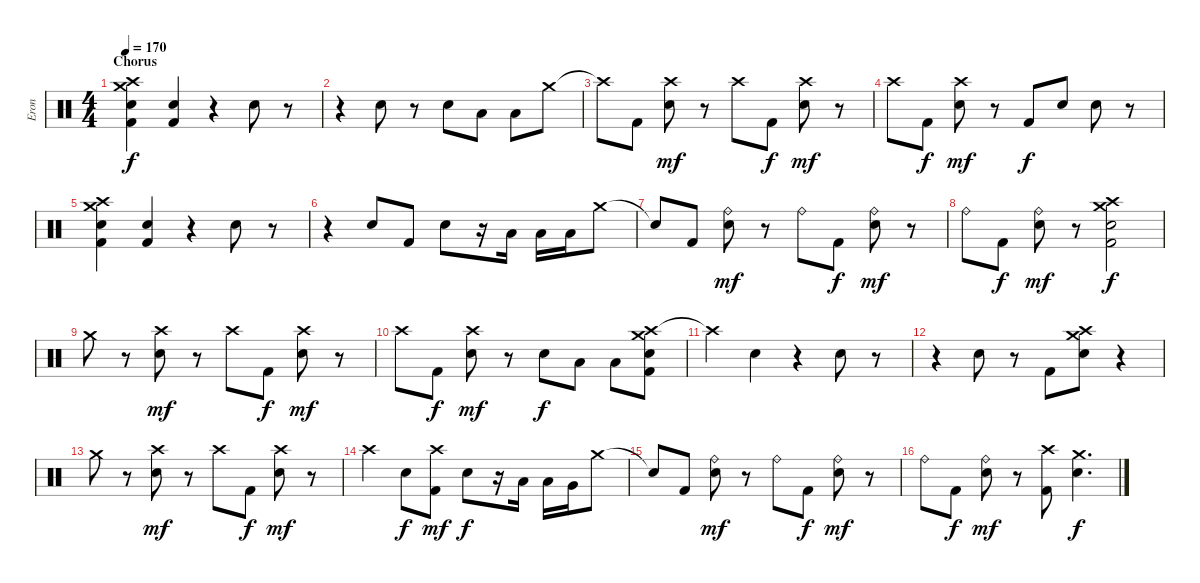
\track ("Eron" "Eron") {instrument percussion}
\staff {score}
\articulation defaults
\ts (4 4)
\section ("" "Chorus")
\tempo 170
\clef neutral
\ks c
("Crash high (hit)" "Crash medium (hit)" "Snare (hit) 2" "Kick (hit) 2").4{dy f} ("Snare (hit) 2" "Kick (hit) 2").4 r.4 "Snare (hit) 2".8 r.8 |
r.4 "Snare (hit) 2".8 r.8 "Snare (hit) 2".8 "Low Tom (hit)".8 "Low Floor Tom (hit)".8 "Crash medium (hit)".8 |
"Crash high (hit)"{t}.8 "Kick (hit) 2".8 ("Crash high (hit)" "Snare (hit) 2").8{dy mf} r.8 "Crash high (hit)".8 "Kick (hit) 2".8{dy f} ("Crash high (hit)" "Snare (hit) 2").8{dy mf} r.8 |
"Crash high (hit)".8 "Kick (hit) 2".8{dy f} ("Crash high (hit)" "Snare (hit) 2").8{dy mf} r.8 "Kick (hit) 2".8{dy f} "Snare (hit) 2".8 "Snare (hit) 2".8 r.8 |
("Crash medium (hit)" "Crash high (hit)" "Snare (hit) 2" "Kick (hit) 2").4 ("Snare (hit) 2" "Kick (hit) 2").4 r.4 "Snare (hit) 2".8 r.8 |
r.4 "Snare (hit) 2".8 "Kick (hit) 2".8 "Snare (hit) 2".8 r.16 "Low Tom (hit)".16 "Low Tom (hit)".16 "Low Floor Tom (hit)".16 "Crash medium (hit)".8 |
"Snare (hit)"{t}.8 "Kick (hit) 2".8 ("Ride (bell)" "Snare (hit) 2").8{dy mf} r.8 "Ride (bell)".8 "Kick (hit) 2".8{dy f} ("Ride (bell)" "Snare (hit) 2").8{dy mf} r.8 |
"Ride (bell)".8 "Kick (hit) 2".8{dy f} ("Ride (bell)" "Snare (hit) 2").8{dy mf} r.8 ("Crash high (hit)" "Crash medium (hit)" "Snare (hit) 2" "Kick (hit) 2").2{dy f} |
"Crash medium (hit)".8 r.8 ("Crash high (hit)" "Snare (hit) 2").8{dy mf} r.8 "Crash high (hit)".8 "Kick (hit) 2".8{dy f} ("Crash high (hit)" "Snare (hit) 2").8{dy mf} r.8 |
"Crash high (hit)".8 "Kick (hit) 2".8{dy f} ("Crash high (hit)" "Snare (hit) 2").8{dy mf} r.8 "Snare (hit) 2".8{dy f} "Low Tom (hit)".8 "Low Floor Tom (hit)".8 ("Crash high (hit)" "Crash medium (hit)" "Snare (hit) 2" "Kick (hit) 2").8 |
"Crash high (hit)"{t}.4 "Snare (hit) 2".4 r.4 "Snare (hit) 2".8 r.8 |
r.4 "Snare (hit) 2".8 r.8 "Kick (hit) 2".8 ("Crash medium (hit)" "Crash high (hit)" "Snare (hit) 2").8 r.4 |
"Crash medium (hit)".8 r.8 ("Crash high (hit)" "Snare (hit) 2").8{dy mf} r.8 "Crash high (hit)".8 "Kick (hit) 2".8{dy f} ("Crash high (hit)" "Snare (hit) 2").8{dy mf} r.8 |
"Crash high (hit)".4 "Snare (hit) 2".8{dy f} ("Crash high (hit)" "Kick (hit) 2").8{dy mf} "Snare (hit) 2".8{dy f} r.16 "Low Tom (hit)".16 "Low Tom (hit)".16 "Very Low Tom (hit)".16 "Crash medium (hit)".8 |
"Snare (hit)"{t}.8 "Kick (hit) 2".8 ("Ride (bell)" "Snare (hit) 2").8{dy mf} r.8 "Ride (bell)".8 "Kick (hit) 2".8{dy f} ("Ride (bell)" "Snare (hit) 2").8{dy mf} r.8 |
"Ride (bell)".8 "Kick (hit) 2".8{dy f} ("Ride (bell)" "Snare (hit) 2").8{dy mf} r.8 ("Crash high (hit)" "Kick (hit) 2").8 ("Crash medium (hit)" "Snare (hit) 2").4{d dy f}
